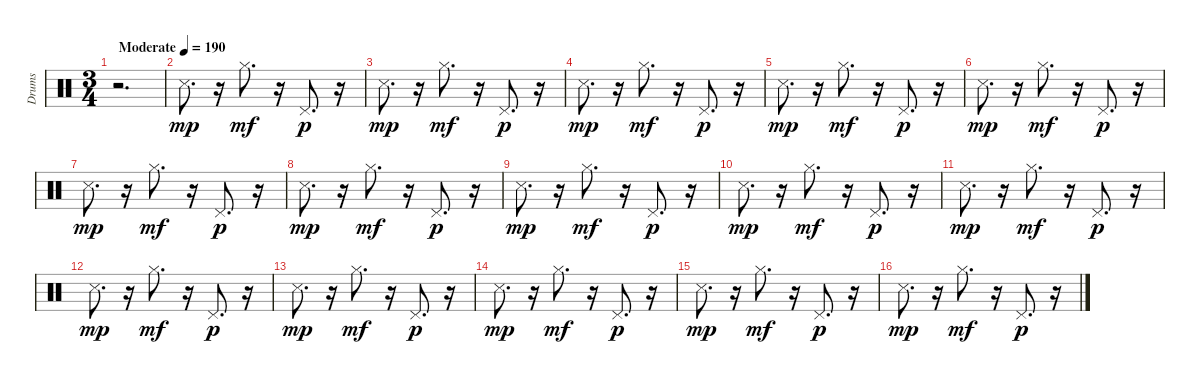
\track ("Drums" "Drums") {instrument percussion}
\staff {score}
\articulation defaults
\ts (3 4)
\tempo (190 "Moderate")
\clef neutral
\ks c
r.2{d dy mp} |
"Metronome (hit)".8{d} r.16 "Hi-Hat (closed)".8{d dy mf} r.16 "Pedal Hi-Hat (hit)".8{d dy p} r.16 |
"Metronome (hit)".8{d dy mp} r.16 "Hi-Hat (closed)".8{d dy mf} r.16 "Pedal Hi-Hat (hit)".8{d dy p} r.16 |
"Metronome (hit)".8{d dy mp} r.16 "Hi-Hat (closed)".8{d dy mf} r.16 "Pedal Hi-Hat (hit)".8{d dy p} r.16 |
"Metronome (hit)".8{d dy mp} r.16 "Hi-Hat (closed)".8{d dy mf} r.16 "Pedal Hi-Hat (hit)".8{d dy p} r.16 |
"Metronome (hit)".8{d dy mp} r.16 "Hi-Hat (closed)".8{d dy mf} r.16 "Pedal Hi-Hat (hit)".8{d dy p} r.16 |
"Metronome (hit)".8{d dy mp} r.16 "Hi-Hat (closed)".8{d dy mf} r.16 "Pedal Hi-Hat (hit)".8{d dy p} r.16 |
"Metronome (hit)".8{d dy mp} r.16 "Hi-Hat (closed)".8{d dy mf} r.16 "Pedal Hi-Hat (hit)".8{d dy p} r.16 |
"Metronome (hit)".8{d dy mp} r.16 "Hi-Hat (closed)".8{d dy mf} r.16 "Pedal Hi-Hat (hit)".8{d dy p} r.16 |
"Metronome (hit)".8{d dy mp} r.16 "Hi-Hat (closed)".8{d dy mf} r.16 "Pedal Hi-Hat (hit)".8{d dy p} r.16 |
"Metronome (hit)".8{d dy mp} r.16 "Hi-Hat (closed)".8{d dy mf} r.16 "Pedal Hi-Hat (hit)".8{d dy p} r.16 |
"Metronome (hit)".8{d dy mp} r.16 "Hi-Hat (closed)".8{d dy mf} r.16 "Pedal Hi-Hat (hit)".8{d dy p} r.16 |
"Metronome (hit)".8{d dy mp} r.16 "Hi-Hat (closed)".8{d dy mf} r.16 "Pedal Hi-Hat (hit)".8{d dy p} r.16 |
"Metronome (hit)".8{d dy mp} r.16 "Hi-Hat (closed)".8{d dy mf} r.16 "Pedal Hi-Hat (hit)".8{d dy p} r.16 |
"Metronome (hit)".8{d dy mp} r.16 "Hi-Hat (closed)".8{d dy mf} r.16 "Pedal Hi-Hat (hit)".8{d dy p} r.16 |
"Metronome (hit)".8{d dy mp} r.16 "Hi-Hat (closed)".8{d dy mf} r.16 "Pedal Hi-Hat (hit)".8{d dy p} r.16
